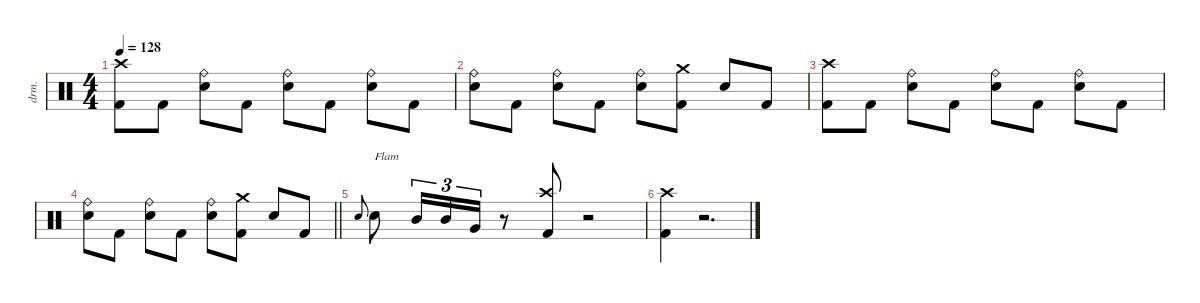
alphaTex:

\defaultSystemsLayout 4
\hideDynamics
\bracketExtendMode nobrackets
\otherSystemsTrackNameOrientation horizontal
\track ("Jimmy Chamberlin" "drm.") {instrument percussion}
\staff {score}
\articulation defaults
\ts (4 4)
\tempo 128
\clef neutral
\ks c
("Crash high (hit)" "Kick (hit) 2").8{dy mf beam Down} "Kick (hit) 2".8{beam Down} ("Ride (bell)" "Snare (hit) 2").8{beam Down} "Kick (hit) 2".8{beam Down} ("Ride (bell)" "Snare (hit) 2").8{beam Down} "Kick (hit) 2".8{beam Down} ("Ride (bell)" "Snare (hit) 2").8{beam Down} "Kick (hit) 2".8{beam Down} |
("Ride (bell)" "Snare (hit) 2").8{beam Down} "Kick (hit) 2".8{beam Down} ("Ride (bell)" "Snare (hit) 2").8{beam Down} "Kick (hit) 2".8{beam Down} ("Ride (bell)" "Snare (hit) 2").8{beam Down} ("Crash medium (hit)" "Kick (hit) 2").8{beam Down} "Snare (hit) 2".8{beam Up} "Kick (hit) 2".8{beam Up} |
("Crash high (hit)" "Kick (hit) 2").8{beam Down} "Kick (hit) 2".8{beam Down} ("Ride (bell)" "Snare (hit) 2").8{beam Down} "Kick (hit) 2".8{beam Down} ("Ride (bell)" "Snare (hit) 2").8{beam Down} "Kick (hit) 2".8{beam Down} ("Ride (bell)" "Snare (hit) 2").8{beam Down} "Kick (hit) 2".8{beam Down} |
\barLineRight lightlight
("Ride (bell)" "Snare (hit) 2").8{beam Down} "Kick (hit) 2".8{beam Down} ("Ride (bell)" "Snare (hit) 2").8{beam Down} "Kick (hit) 2".8{beam Down} ("Ride (bell)" "Snare (hit) 2").8{beam Down} ("Crash medium (hit)" "Kick (hit) 2").8{beam Down} "Snare (hit) 2".8{beam Up} "Kick (hit) 2".8{beam Up} |
"Snare (hit) 2".8{gr onbeat beam Up} "Snare (hit) 2".8{txt "Flam" beam Down} "Mid Tom (hit)".16{tu (3 2) beam Up} "Mid Tom (hit)".16{tu (3 2) beam Up} "Very Low Tom (hit)".16{tu (3 2) beam Up} r.8{beam Up} ("Crash high (hit)" "Kick (hit) 2").8{beam Down} r.2{beam Down} |
("Crash high (hit)" "Kick (hit) 2").4{beam Down} r.2{d beam Down}
